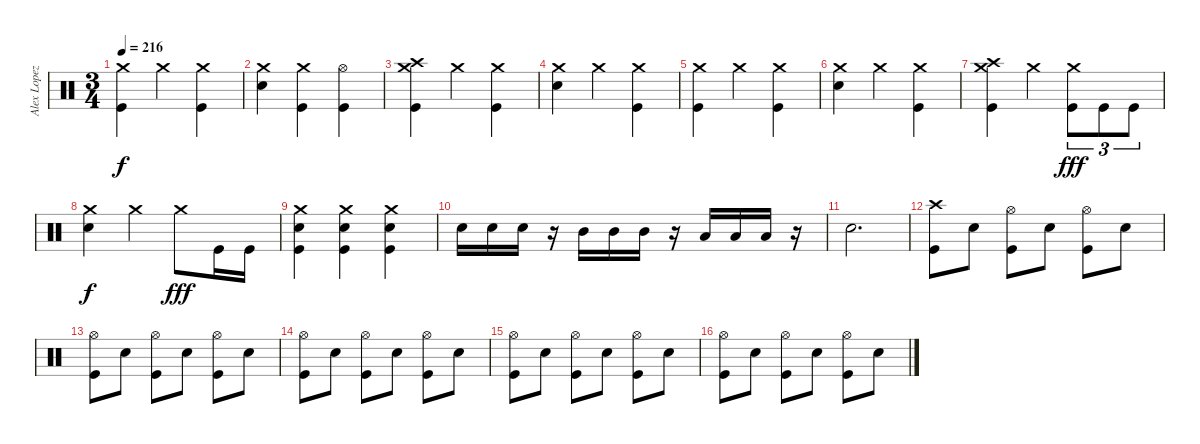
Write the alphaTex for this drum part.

\track ("Alex Lopez" "Alex Lopez") {instrument percussion}
\staff {score}
\articulation defaults
\ts (3 4)
\tempo 216
\clef neutral
\ks c
("Crash medium (hit)" "Kick (hit)").4{dy f} "Crash medium (hit)".4 ("Crash medium (hit)" "Kick (hit)").4 |
("Crash medium (hit)" "Electric Snare (hit)").4 ("Crash medium (hit)" "Kick (hit)").4 ("Hi-Hat (open)" "Kick (hit)").4 |
("Crash high (hit)" "Crash medium (hit)" "Kick (hit)").4 "Crash medium (hit)".4 ("Crash medium (hit)" "Kick (hit)").4 |
("Crash medium (hit)" "Electric Snare (hit)").4 "Crash medium (hit)".4 ("Crash medium (hit)" "Kick (hit)").4 |
("Crash medium (hit)" "Kick (hit)").4 "Crash medium (hit)".4 ("Crash medium (hit)" "Kick (hit)").4 |
("Crash medium (hit)" "Electric Snare (hit)").4 "Crash medium (hit)".4 ("Crash medium (hit)" "Kick (hit)").4 |
("Crash high (hit)" "Crash medium (hit)" "Kick (hit)").4 "Crash medium (hit)".4 ("Crash medium (hit)" "Kick (hit)").8{tu (3 2) dy fff} "Kick (hit)".8{tu (3 2)} "Kick (hit)".8{tu (3 2)} |
("Crash medium (hit)" "Electric Snare (hit)").4{dy f} "Crash medium (hit)".4 "Crash medium (hit)".8{dy fff} "Kick (hit)".16 "Kick (hit)".16 |
("Crash medium (hit)" "Electric Snare (hit)" "Kick (hit)").4 ("Crash medium (hit)" "Electric Snare (hit)" "Kick (hit)").4 ("Crash medium (hit)" "Electric Snare (hit)" "Kick (hit)").4 |
"Electric Snare (hit)".16 "Electric Snare (hit)".16 "Electric Snare (hit)".16 r.16 "Mid Tom (hit)".16 "Mid Tom (hit)".16 "Mid Tom (hit)".16 r.16 "Low Tom (hit)".16 "Low Tom (hit)".16 "Low Tom (hit)".16 r.16 |
"Electric Snare (hit)".2{d} |
("Crash high (hit)" "Kick (hit)").8 "Electric Snare (hit)".8 ("Hi-Hat (open)" "Kick (hit)").8 "Electric Snare (hit)".8 ("Hi-Hat (open)" "Kick (hit)").8 "Electric Snare (hit)".8 |
("Hi-Hat (open)" "Kick (hit)").8 "Electric Snare (hit)".8 ("Hi-Hat (open)" "Kick (hit)").8 "Electric Snare (hit)".8 ("Hi-Hat (open)" "Kick (hit)").8 "Electric Snare (hit)".8 |
("Hi-Hat (open)" "Kick (hit)").8 "Electric Snare (hit)".8 ("Hi-Hat (open)" "Kick (hit)").8 "Electric Snare (hit)".8 ("Hi-Hat (open)" "Kick (hit)").8 "Electric Snare (hit)".8 |
("Hi-Hat (open)" "Kick (hit)").8 "Electric Snare (hit)".8 ("Hi-Hat (open)" "Kick (hit)").8 "Electric Snare (hit)".8 ("Hi-Hat (open)" "Kick (hit)").8 "Electric Snare (hit)".8 |
("Hi-Hat (open)" "Kick (hit)").8 "Electric Snare (hit)".8 ("Hi-Hat (open)" "Kick (hit)").8 "Electric Snare (hit)".8 ("Hi-Hat (open)" "Kick (hit)").8 "Electric Snare (hit)".8
